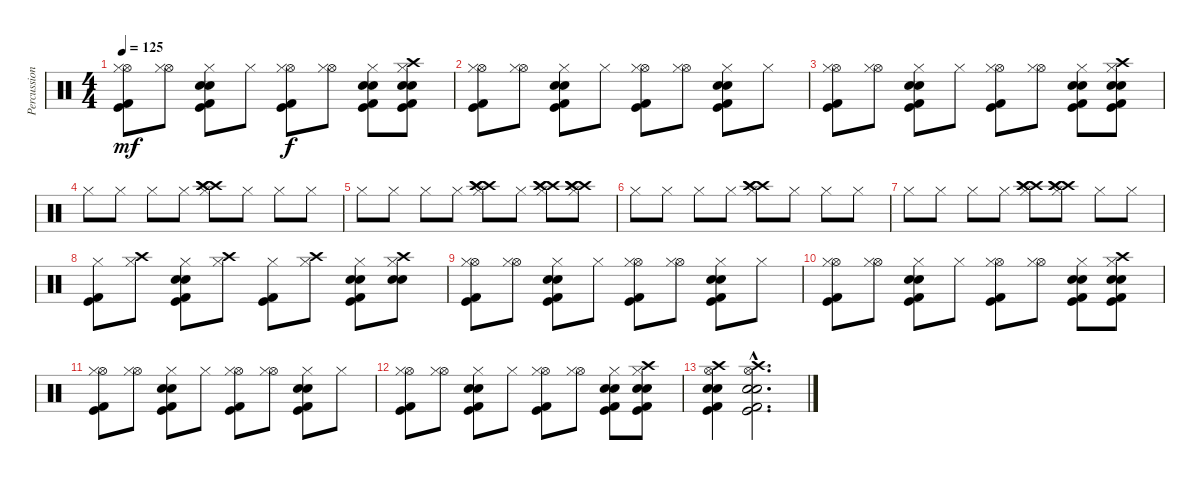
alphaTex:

\track ("Percussion" "Percussion") {instrument percussion}
\staff {score}
\articulation defaults
\ts (4 4)
\tempo 125
\clef neutral
\ks c
("Hi-Hat (open)" "Kick (hit)" "Kick (hit) 2" "Hi-Hat (closed)").8{dy mf} ("Hi-Hat (open)" "Hi-Hat (closed)").8 ("Electric Snare (hit)" "Electric Snare (hit)" "Kick (hit)" "Kick (hit) 2" "Hi-Hat (closed)").8 "Hi-Hat (closed)".8 ("Hi-Hat (open)" "Kick (hit)" "Kick (hit) 2" "Hi-Hat (closed)").8{dy f} ("Hi-Hat (open)" "Hi-Hat (closed)").8 ("Electric Snare (hit)" "Electric Snare (hit)" "Kick (hit)" "Kick (hit) 2" "Hi-Hat (closed)").8 ("Crash high (hit)" "Electric Snare (hit)" "Electric Snare (hit)" "Kick (hit)" "Kick (hit) 2" "Hi-Hat (closed)").8 |
("Hi-Hat (open)" "Kick (hit)" "Kick (hit) 2" "Hi-Hat (closed)").8 ("Hi-Hat (open)" "Hi-Hat (closed)").8 ("Electric Snare (hit)" "Electric Snare (hit)" "Kick (hit)" "Kick (hit) 2" "Hi-Hat (closed)").8 "Hi-Hat (closed)".8 ("Hi-Hat (open)" "Kick (hit)" "Kick (hit) 2" "Hi-Hat (closed)").8 ("Hi-Hat (open)" "Hi-Hat (closed)").8 ("Electric Snare (hit)" "Electric Snare (hit)" "Kick (hit)" "Kick (hit) 2" "Hi-Hat (closed)").8 "Hi-Hat (closed)".8 |
("Hi-Hat (open)" "Kick (hit)" "Kick (hit) 2" "Hi-Hat (closed)").8 ("Hi-Hat (open)" "Hi-Hat (closed)").8 ("Electric Snare (hit)" "Electric Snare (hit)" "Kick (hit)" "Kick (hit) 2" "Hi-Hat (closed)").8 "Hi-Hat (closed)".8 ("Hi-Hat (open)" "Kick (hit)" "Kick (hit) 2" "Hi-Hat (closed)").8 ("Hi-Hat (open)" "Hi-Hat (closed)").8 ("Electric Snare (hit)" "Electric Snare (hit)" "Kick (hit)" "Kick (hit) 2" "Hi-Hat (closed)").8 ("Crash high (hit)" "Electric Snare (hit)" "Electric Snare (hit)" "Kick (hit)" "Kick (hit) 2" "Hi-Hat (closed)").8 |
"Hi-Hat (closed)".8 "Hi-Hat (closed)".8 "Hi-Hat (closed)".8 "Hi-Hat (closed)".8 ("Crash high (hit)" "Crash high (hit)" "Crash high (hit)" "Hi-Hat (closed)").8 "Hi-Hat (closed)".8 "Hi-Hat (closed)".8 "Hi-Hat (closed)".8 |
"Hi-Hat (closed)".8 "Hi-Hat (closed)".8 "Hi-Hat (closed)".8 "Hi-Hat (closed)".8 ("Crash high (hit)" "Crash high (hit)" "Crash high (hit)" "Hi-Hat (closed)").8 "Hi-Hat (closed)".8 ("Crash high (hit)" "Crash high (hit)" "Crash high (hit)" "Hi-Hat (closed)").8 ("Crash high (hit)" "Crash high (hit)" "Crash high (hit)" "Hi-Hat (closed)").8 |
"Hi-Hat (closed)".8 "Hi-Hat (closed)".8 "Hi-Hat (closed)".8 "Hi-Hat (closed)".8 ("Crash high (hit)" "Crash high (hit)" "Crash high (hit)" "Hi-Hat (closed)").8 "Hi-Hat (closed)".8 "Hi-Hat (closed)".8 "Hi-Hat (closed)".8 |
"Hi-Hat (closed)".8 "Hi-Hat (closed)".8 "Hi-Hat (closed)".8 "Hi-Hat (closed)".8 ("Crash high (hit)" "Crash high (hit)" "Crash high (hit)" "Hi-Hat (closed)").8 ("Crash high (hit)" "Crash high (hit)" "Crash high (hit)" "Hi-Hat (closed)").8 "Hi-Hat (closed)".8 "Hi-Hat (closed)".8 |
("Kick (hit)" "Kick (hit) 2" "Hi-Hat (closed)").8 ("Crash high (hit)" "Hi-Hat (closed)").8 ("Electric Snare (hit)" "Electric Snare (hit)" "Kick (hit)" "Kick (hit) 2" "Hi-Hat (closed)").8 ("Crash high (hit)" "Hi-Hat (closed)").8 ("Kick (hit)" "Kick (hit) 2" "Hi-Hat (closed)").8 ("Crash high (hit)" "Hi-Hat (closed)").8 ("Electric Snare (hit)" "Electric Snare (hit)" "Kick (hit)" "Kick (hit) 2" "Hi-Hat (closed)").8 ("Crash high (hit)" "Electric Snare (hit)" "Electric Snare (hit)" "Hi-Hat (closed)").8 |
("Hi-Hat (open)" "Kick (hit)" "Kick (hit) 2" "Hi-Hat (closed)").8 ("Hi-Hat (open)" "Hi-Hat (closed)").8 ("Electric Snare (hit)" "Electric Snare (hit)" "Kick (hit)" "Kick (hit) 2" "Hi-Hat (closed)").8 "Hi-Hat (closed)".8 ("Hi-Hat (open)" "Kick (hit)" "Kick (hit) 2" "Hi-Hat (closed)").8 ("Hi-Hat (open)" "Hi-Hat (closed)").8 ("Electric Snare (hit)" "Electric Snare (hit)" "Kick (hit)" "Kick (hit) 2" "Hi-Hat (closed)").8 "Hi-Hat (closed)".8 |
("Hi-Hat (open)" "Kick (hit)" "Kick (hit) 2" "Hi-Hat (closed)").8 ("Hi-Hat (open)" "Hi-Hat (closed)").8 ("Electric Snare (hit)" "Electric Snare (hit)" "Kick (hit)" "Kick (hit) 2" "Hi-Hat (closed)").8 "Hi-Hat (closed)".8 ("Hi-Hat (open)" "Kick (hit)" "Kick (hit) 2" "Hi-Hat (closed)").8 ("Hi-Hat (open)" "Hi-Hat (closed)").8 ("Electric Snare (hit)" "Electric Snare (hit)" "Kick (hit)" "Kick (hit) 2" "Hi-Hat (closed)").8 ("Crash high (hit)" "Electric Snare (hit)" "Electric Snare (hit)" "Kick (hit)" "Kick (hit) 2" "Hi-Hat (closed)").8 |
("Hi-Hat (open)" "Kick (hit)" "Kick (hit) 2" "Hi-Hat (closed)").8 ("Hi-Hat (open)" "Hi-Hat (closed)").8 ("Electric Snare (hit)" "Electric Snare (hit)" "Kick (hit)" "Kick (hit) 2" "Hi-Hat (closed)").8 "Hi-Hat (closed)".8 ("Hi-Hat (open)" "Kick (hit)" "Kick (hit) 2" "Hi-Hat (closed)").8 ("Hi-Hat (open)" "Hi-Hat (closed)").8 ("Electric Snare (hit)" "Electric Snare (hit)" "Kick (hit)" "Kick (hit) 2" "Hi-Hat (closed)").8 "Hi-Hat (closed)".8 |
("Hi-Hat (open)" "Kick (hit)" "Kick (hit) 2" "Hi-Hat (closed)").8 ("Hi-Hat (open)" "Hi-Hat (closed)").8 ("Electric Snare (hit)" "Electric Snare (hit)" "Kick (hit)" "Kick (hit) 2" "Hi-Hat (closed)").8 "Hi-Hat (closed)".8 ("Hi-Hat (open)" "Kick (hit)" "Kick (hit) 2" "Hi-Hat (closed)").8 ("Hi-Hat (open)" "Hi-Hat (closed)").8 ("Electric Snare (hit)" "Electric Snare (hit)" "Kick (hit)" "Kick (hit) 2" "Hi-Hat (closed)").8 ("Crash high (hit)" "Electric Snare (hit)" "Electric Snare (hit)" "Kick (hit)" "Kick (hit) 2" "Hi-Hat (closed)").8 |
("Crash high (hit)" "Electric Snare (hit)" "Electric Snare (hit)" "Hi-Hat (open)" "Kick (hit)" "Kick (hit) 2").4 ("Crash high (hit)"{hac} "Electric Snare (hit)"{hac} "Electric Snare (hit)"{hac} "Hi-Hat (open)"{hac} "Kick (hit)"{hac} "Kick (hit) 2"{hac}).2{d}
